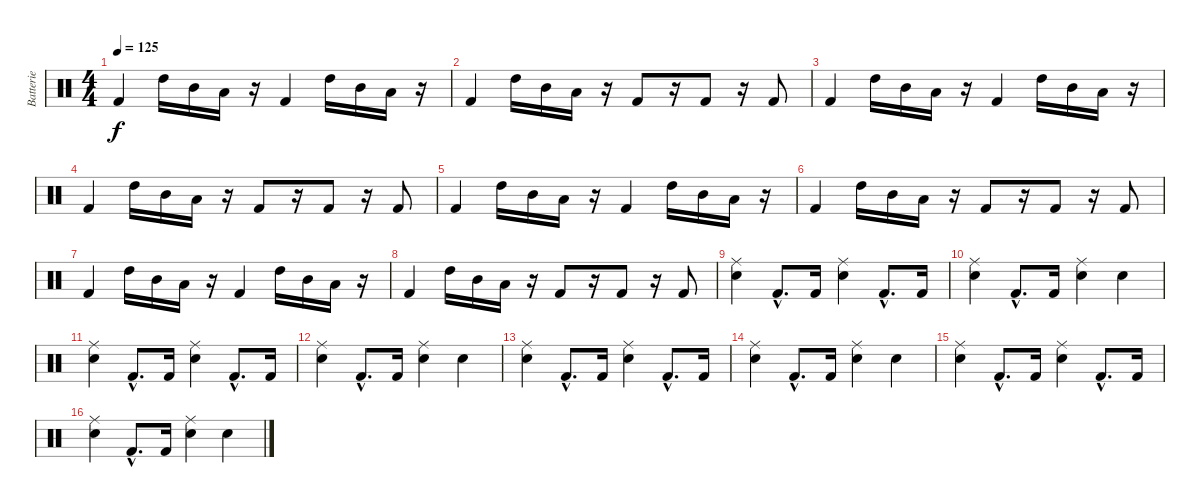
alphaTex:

\track ("Batterie" "Batterie") {instrument percussion}
\staff {score}
\articulation defaults
\ts (4 4)
\tempo 125
\clef neutral
\ks c "Kick (hit) 2".4{dy f volume 10} "High Tom (hit)".16 "Mid Tom (hit)".16 "Low Tom (hit)".16
r.16 "Kick (hit) 2".4 "High Tom (hit)".16 "Mid Tom (hit)".16 "Low Tom (hit)".16 r.16 |
"Kick (hit) 2".4 "High Tom (hit)".16 "Mid Tom (hit)".16 "Low Tom (hit)".16 r.16 "Kick (hit) 2".8 r.16 "Kick (hit) 2".8 r.16 "Kick (hit) 2".8 |
"Kick (hit) 2".4 "High Tom (hit)".16 "Mid Tom (hit)".16 "Low Tom (hit)".16 r.16 "Kick (hit) 2".4 "High Tom (hit)".16 "Mid Tom (hit)".16 "Low Tom (hit)".16 r.16 |
"Kick (hit) 2".4 "High Tom (hit)".16 "Mid Tom (hit)".16 "Low Tom (hit)".16 r.16 "Kick (hit) 2".8 r.16 "Kick (hit) 2".8 r.16 "Kick (hit) 2".8 |
"Kick (hit) 2".4 "High Tom (hit)".16 "Mid Tom (hit)".16 "Low Tom (hit)".16 r.16 "Kick (hit) 2".4 "High Tom (hit)".16 "Mid Tom (hit)".16 "Low Tom (hit)".16 r.16 |
"Kick (hit) 2".4 "High Tom (hit)".16 "Mid Tom (hit)".16 "Low Tom (hit)".16 r.16 "Kick (hit) 2".8 r.16 "Kick (hit) 2".8 r.16 "Kick (hit) 2".8 |
"Kick (hit) 2".4 "High Tom (hit)".16 "Mid Tom (hit)".16 "Low Tom (hit)".16 r.16 "Kick (hit) 2".4 "High Tom (hit)".16 "Mid Tom (hit)".16 "Low Tom (hit)".16 r.16 |
"Kick (hit) 2".4 "High Tom (hit)".16 "Mid Tom (hit)".16 "Low Tom (hit)".16 r.16 "Kick (hit) 2".8 r.16 "Kick (hit) 2".8 r.16 "Kick (hit) 2".8 |
\section ("" "")
("Snare (hit) 2" "Ride (middle)").4{volume 16} "Kick (hit) 2"{hac}.8{d} "Kick (hit) 2".16 ("Snare (hit) 2" "Ride (middle)").4 "Kick (hit) 2"{hac}.8{d} "Kick (hit) 2".16 |
("Snare (hit) 2" "Ride (middle)").4 "Kick (hit) 2"{hac}.8{d} "Kick (hit) 2".16 ("Snare (hit) 2" "Ride (middle)").4 "Snare (hit) 2".4 |
("Snare (hit) 2" "Ride (middle)").4 "Kick (hit) 2"{hac}.8{d} "Kick (hit) 2".16 ("Snare (hit) 2" "Ride (middle)").4 "Kick (hit) 2"{hac}.8{d} "Kick (hit) 2".16 |
("Snare (hit) 2" "Ride (middle)").4 "Kick (hit) 2"{hac}.8{d} "Kick (hit) 2".16 ("Snare (hit) 2" "Ride (middle)").4 "Snare (hit) 2".4 |
("Snare (hit) 2" "Ride (middle)").4 "Kick (hit) 2"{hac}.8{d} "Kick (hit) 2".16 ("Snare (hit) 2" "Ride (middle)").4 "Kick (hit) 2"{hac}.8{d} "Kick (hit) 2".16 |
("Snare (hit) 2" "Ride (middle)").4 "Kick (hit) 2"{hac}.8{d} "Kick (hit) 2".16 ("Snare (hit) 2" "Ride (middle)").4 "Snare (hit) 2".4 |
("Snare (hit) 2" "Ride (middle)").4 "Kick (hit) 2"{hac}.8{d} "Kick (hit) 2".16 ("Snare (hit) 2" "Ride (middle)").4 "Kick (hit) 2"{hac}.8{d} "Kick (hit) 2".16 |
("Snare (hit) 2" "Ride (middle)").4 "Kick (hit) 2"{hac}.8{d} "Kick (hit) 2".16 ("Snare (hit) 2" "Ride (middle)").4 "Snare (hit) 2".4
